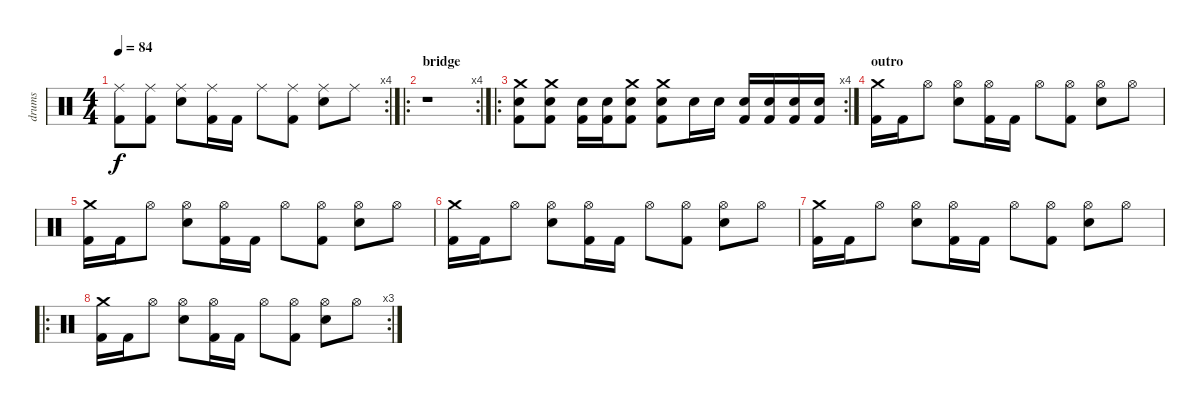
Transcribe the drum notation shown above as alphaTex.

\track ("drums" "drums") {instrument percussion}
\staff {score}
\articulation defaults
\rc 4
\ts (4 4)
\tempo 84
\clef neutral
\ks c
("Ride (middle)" "Kick (hit) 2").8{dy f} ("Ride (middle)" "Kick (hit) 2").8 ("Ride (middle)" "Electric Snare (hit)").8 ("Ride (middle)" "Kick (hit) 2").16 "Kick (hit) 2".16 "Ride (middle)".8 ("Ride (middle)" "Kick (hit) 2").8 ("Ride (middle)" "Electric Snare (hit)").8 "Ride (middle)".8 |
\ro
\rc 4
\section ("" "bridge")
r.1 |
\ro
\rc 4
("Crash medium (hit)" "Electric Snare (hit)" "Kick (hit) 2").8 ("Crash medium (hit)" "Electric Snare (hit)" "Kick (hit) 2").8 ("Electric Snare (hit)" "Kick (hit) 2").16 ("Electric Snare (hit)" "Kick (hit) 2").16 ("Crash medium (hit)" "Electric Snare (hit)" "Kick (hit) 2").8 ("Crash medium (hit)" "Electric Snare (hit)" "Kick (hit) 2").8 "Electric Snare (hit)".16 "Electric Snare (hit)".16 ("Electric Snare (hit)" "Kick (hit) 2").16 ("Electric Snare (hit)" "Kick (hit) 2").16 ("Electric Snare (hit)" "Kick (hit) 2").16 ("Electric Snare (hit)" "Kick (hit) 2").16 |
\section ("" "outro")
("Crash medium (hit)" "Kick (hit) 2").16 "Kick (hit) 2".16 "Hi-Hat (open)".8 ("Hi-Hat (open)" "Electric Snare (hit)").8 ("Hi-Hat (open)" "Kick (hit) 2").16 "Kick (hit) 2".16 "Hi-Hat (open)".8 ("Hi-Hat (open)" "Kick (hit) 2").8 ("Hi-Hat (open)" "Electric Snare (hit)").8 "Hi-Hat (open)".8 |
("Crash medium (hit)" "Kick (hit) 2").16 "Kick (hit) 2".16 "Hi-Hat (open)".8 ("Hi-Hat (open)" "Electric Snare (hit)").8 ("Hi-Hat (open)" "Kick (hit) 2").16 "Kick (hit) 2".16 "Hi-Hat (open)".8 ("Hi-Hat (open)" "Kick (hit) 2").8 ("Hi-Hat (open)" "Electric Snare (hit)").8 "Hi-Hat (open)".8 |
("Crash medium (hit)" "Kick (hit) 2").16 "Kick (hit) 2".16 "Hi-Hat (open)".8 ("Hi-Hat (open)" "Electric Snare (hit)").8 ("Hi-Hat (open)" "Kick (hit) 2").16 "Kick (hit) 2".16 "Hi-Hat (open)".8 ("Hi-Hat (open)" "Kick (hit) 2").8 ("Hi-Hat (open)" "Electric Snare (hit)").8 "Hi-Hat (open)".8 |
("Crash medium (hit)" "Kick (hit) 2").16 "Kick (hit) 2".16 "Hi-Hat (open)".8 ("Hi-Hat (open)" "Electric Snare (hit)").8 ("Hi-Hat (open)" "Kick (hit) 2").16 "Kick (hit) 2".16 "Hi-Hat (open)".8 ("Hi-Hat (open)" "Kick (hit) 2").8 ("Hi-Hat (open)" "Electric Snare (hit)").8 "Hi-Hat (open)".8 |
\ro
\rc 3
("Crash medium (hit)" "Kick (hit) 2").16 "Kick (hit) 2".16 "Hi-Hat (open)".8 ("Hi-Hat (open)" "Electric Snare (hit)").8 ("Hi-Hat (open)" "Kick (hit) 2").16 "Kick (hit) 2".16 "Hi-Hat (open)".8 ("Hi-Hat (open)" "Kick (hit) 2").8 ("Hi-Hat (open)" "Electric Snare (hit)").8 "Hi-Hat (open)".8
